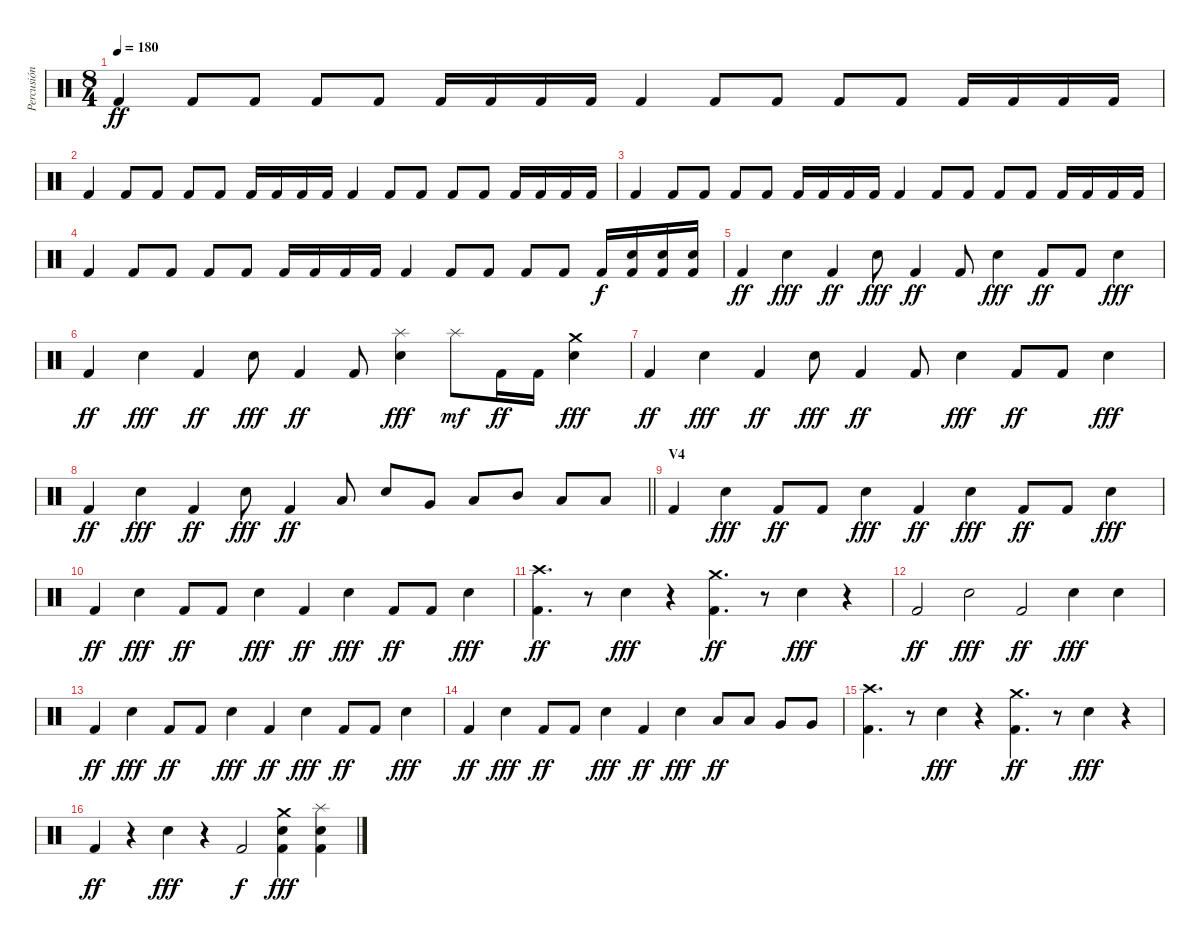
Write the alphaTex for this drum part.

\track ("Percusión" "Percusión") {instrument percussion}
\staff {score}
\articulation defaults
\ts (8 4)
\tempo 180
\clef neutral
\ks c "Kick (hit) 2".4{dy ff} "Kick (hit) 2".8 "Kick (hit) 2".8 "Kick (hit) 2".8 "Kick (hit) 2".8 "Kick (hit) 2".16 "Kick (hit) 2".16 "Kick (hit) 2".16 "Kick (hit) 2".16 "Kick (hit) 2".4 "Kick (hit) 2".8 "Kick (hit) 2".8 "Kick (hit) 2".8 "Kick (hit) 2".8 "Kick (hit) 2".16 "Kick (hit) 2".16 "Kick (hit) 2".16 "Kick (hit) 2".16
|
"Kick (hit) 2".4 "Kick (hit) 2".8 "Kick (hit) 2".8 "Kick (hit) 2".8 "Kick (hit) 2".8 "Kick (hit) 2".16 "Kick (hit) 2".16 "Kick (hit) 2".16 "Kick (hit) 2".16 "Kick (hit) 2".4 "Kick (hit) 2".8 "Kick (hit) 2".8 "Kick (hit) 2".8 "Kick (hit) 2".8 "Kick (hit) 2".16 "Kick (hit) 2".16 "Kick (hit) 2".16 "Kick (hit) 2".16 |
"Kick (hit) 2".4 "Kick (hit) 2".8 "Kick (hit) 2".8 "Kick (hit) 2".8 "Kick (hit) 2".8 "Kick (hit) 2".16 "Kick (hit) 2".16 "Kick (hit) 2".16 "Kick (hit) 2".16 "Kick (hit) 2".4 "Kick (hit) 2".8 "Kick (hit) 2".8 "Kick (hit) 2".8 "Kick (hit) 2".8 "Kick (hit) 2".16 "Kick (hit) 2".16 "Kick (hit) 2".16 "Kick (hit) 2".16 |
"Kick (hit) 2".4 "Kick (hit) 2".8 "Kick (hit) 2".8 "Kick (hit) 2".8 "Kick (hit) 2".8 "Kick (hit) 2".16 "Kick (hit) 2".16 "Kick (hit) 2".16 "Kick (hit) 2".16 "Kick (hit) 2".4 "Kick (hit) 2".8 "Kick (hit) 2".8 "Kick (hit) 2".8 "Kick (hit) 2".8 "Kick (hit) 2".16{dy f} ("Electric Snare (hit)" "Kick (hit) 2").16 ("Electric Snare (hit)" "Kick (hit) 2").16 ("Electric Snare (hit)" "Kick (hit) 2").16 |
"Kick (hit) 2".4{dy ff} "Electric Snare (hit)".4{dy fff} "Kick (hit) 2".4{dy ff} "Electric Snare (hit)".8{dy fff} "Kick (hit) 2".4{dy ff} "Kick (hit) 2".8 "Electric Snare (hit)".4{dy fff} "Kick (hit) 2".8{dy ff} "Kick (hit) 2".8 "Electric Snare (hit)".4{dy fff} |
"Kick (hit) 2".4{dy ff} "Electric Snare (hit)".4{dy fff} "Kick (hit) 2".4{dy ff} "Electric Snare (hit)".8{dy fff} "Kick (hit) 2".4{dy ff} "Kick (hit) 2".8 ("Splash (hit)" "Electric Snare (hit)").4{dy fff} "Splash (hit)".8{dy mf} "Kick (hit) 2".16{dy ff} "Kick (hit) 2".16 ("Crash medium (hit)" "Electric Snare (hit)").4{dy fff} |
"Kick (hit) 2".4{dy ff} "Electric Snare (hit)".4{dy fff} "Kick (hit) 2".4{dy ff} "Electric Snare (hit)".8{dy fff} "Kick (hit) 2".4{dy ff} "Kick (hit) 2".8 "Electric Snare (hit)".4{dy fff} "Kick (hit) 2".8{dy ff} "Kick (hit) 2".8 "Electric Snare (hit)".4{dy fff} |
\barLineRight lightlight "Kick (hit) 2".4{dy ff} "Electric Snare (hit)".4{dy fff} "Kick (hit) 2".4{dy ff} "Electric Snare (hit)".8{dy fff} "Kick (hit) 2".4{dy ff} "Low Floor Tom (hit)".8 "Electric Snare (hit)".8 "Very Low Tom (hit)".8 "Low Tom (hit)".8 "Mid Tom (hit)".8 "Low Tom (hit)".8 "Low Tom (hit)".8
|
\section ("" "V4")
"Kick (hit) 2".4 "Electric Snare (hit)".4{dy fff} "Kick (hit) 2".8{dy ff} "Kick (hit) 2".8 "Electric Snare (hit)".4{dy fff} "Kick (hit) 2".4{dy ff} "Electric Snare (hit)".4{dy fff} "Kick (hit) 2".8{dy ff} "Kick (hit) 2".8 "Electric Snare (hit)".4{dy fff} |
"Kick (hit) 2".4{dy ff} "Electric Snare (hit)".4{dy fff} "Kick (hit) 2".8{dy ff} "Kick (hit) 2".8 "Electric Snare (hit)".4{dy fff} "Kick (hit) 2".4{dy ff} "Electric Snare (hit)".4{dy fff} "Kick (hit) 2".8{dy ff} "Kick (hit) 2".8 "Electric Snare (hit)".4{dy fff} |
("Crash high (hit)" "Kick (hit) 2").4{d dy ff} r.8 "Electric Snare (hit)".4{dy fff} r.4 ("Crash medium (hit)" "Kick (hit) 2").4{d dy ff} r.8 "Electric Snare (hit)".4{dy fff} r.4 |
"Kick (hit) 2".2{dy ff} "Electric Snare (hit)".2{dy fff} "Kick (hit) 2".2{dy ff} "Electric Snare (hit)".4{dy fff} "Electric Snare (hit)".4 |
"Kick (hit) 2".4{dy ff} "Electric Snare (hit)".4{dy fff} "Kick (hit) 2".8{dy ff} "Kick (hit) 2".8 "Electric Snare (hit)".4{dy fff} "Kick (hit) 2".4{dy ff} "Electric Snare (hit)".4{dy fff} "Kick (hit) 2".8{dy ff} "Kick (hit) 2".8 "Electric Snare (hit)".4{dy fff} |
"Kick (hit) 2".4{dy ff} "Electric Snare (hit)".4{dy fff} "Kick (hit) 2".8{dy ff} "Kick (hit) 2".8 "Electric Snare (hit)".4{dy fff} "Kick (hit) 2".4{dy ff} "Electric Snare (hit)".4{dy fff} "Low Tom (hit)".8{dy ff} "Low Tom (hit)".8 "Very Low Tom (hit)".8 "Very Low Tom (hit)".8 |
("Crash high (hit)" "Kick (hit) 2").4{d} r.8 "Electric Snare (hit)".4{dy fff} r.4 ("Crash medium (hit)" "Kick (hit) 2").4{d dy ff} r.8 "Electric Snare (hit)".4{dy fff} r.4 |
"Kick (hit) 2".4{dy ff} r.4 "Electric Snare (hit)".4{dy fff} r.4 "Kick (hit) 2".2{dy f} ("Crash medium (hit)" "Electric Snare (hit)" "Kick (hit) 2").4{dy fff} ("Splash (hit)" "Electric Snare (hit)" "Kick (hit) 2").4
